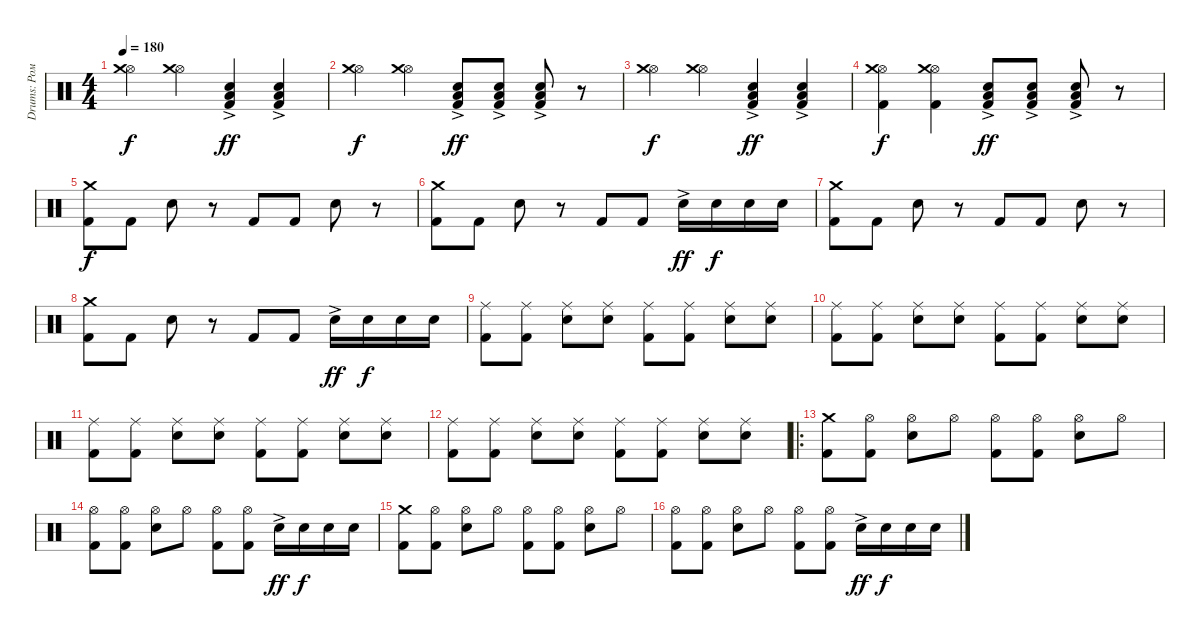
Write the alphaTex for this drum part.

\track ("Drums: Рома" "Drums: Ром") {instrument percussion}
\staff {score}
\articulation defaults
\ts (4 4)
\tempo 180
\clef neutral
\ks c
("Hi-Hat (open)" "Crash medium (hit)").4{dy f} ("Hi-Hat (open)" "Crash medium (hit)").4 ("Snare (hit) 2"{ac} "Low Tom (hit)" "Kick (hit) 2").4{dy ff} ("Snare (hit) 2"{ac} "Low Tom (hit)" "Kick (hit) 2").4 |
("Hi-Hat (open)" "Crash medium (hit)").4{dy f} ("Hi-Hat (open)" "Crash medium (hit)").4 ("Snare (hit) 2"{ac} "Low Tom (hit)" "Kick (hit) 2").8{dy ff} ("Snare (hit) 2"{ac} "Low Tom (hit)" "Kick (hit) 2").8 ("Snare (hit) 2"{ac} "Low Tom (hit)" "Kick (hit) 2").8 r.8 |
("Hi-Hat (open)" "Crash medium (hit)").4{dy f} ("Hi-Hat (open)" "Crash medium (hit)").4 ("Snare (hit) 2"{ac} "Low Tom (hit)" "Kick (hit) 2").4{dy ff} ("Snare (hit) 2"{ac} "Low Tom (hit)" "Kick (hit) 2").4 |
("Hi-Hat (open)" "Crash medium (hit)" "Kick (hit) 2").4{dy f} ("Hi-Hat (open)" "Crash medium (hit)" "Kick (hit) 2").4 ("Snare (hit) 2"{ac} "Low Tom (hit)" "Kick (hit) 2").8{dy ff} ("Snare (hit) 2"{ac} "Low Tom (hit)" "Kick (hit) 2").8 ("Snare (hit) 2"{ac} "Low Tom (hit)" "Kick (hit) 2").8 r.8 |
("Crash medium (hit)" "Kick (hit) 2").8{dy f} "Kick (hit) 2".8 "Snare (hit) 2".8 r.8 "Kick (hit) 2".8 "Kick (hit) 2".8 "Snare (hit) 2".8 r.8 |
("Crash medium (hit)" "Kick (hit) 2").8 "Kick (hit) 2".8 "Snare (hit) 2".8 r.8 "Kick (hit) 2".8 "Kick (hit) 2".8 "Snare (hit) 2"{ac}.16{dy ff} "Snare (hit) 2".16{dy f} "Snare (hit) 2".16 "Snare (hit) 2".16 |
("Crash medium (hit)" "Kick (hit) 2").8 "Kick (hit) 2".8 "Snare (hit) 2".8 r.8 "Kick (hit) 2".8 "Kick (hit) 2".8 "Snare (hit) 2".8 r.8 |
("Crash medium (hit)" "Kick (hit) 2").8 "Kick (hit) 2".8 "Snare (hit) 2".8 r.8 "Kick (hit) 2".8 "Kick (hit) 2".8 "Snare (hit) 2"{ac}.16{dy ff} "Snare (hit) 2".16{dy f} "Snare (hit) 2".16 "Snare (hit) 2".16 |
("Ride (middle)" "Kick (hit) 2").8 ("Ride (middle)" "Kick (hit) 2").8 ("Ride (middle)" "Snare (hit) 2").8 ("Ride (middle)" "Snare (hit) 2").8 ("Ride (middle)" "Kick (hit) 2").8 ("Ride (middle)" "Kick (hit) 2").8 ("Ride (middle)" "Snare (hit) 2").8 ("Ride (middle)" "Snare (hit) 2").8 |
("Ride (middle)" "Kick (hit) 2").8 ("Ride (middle)" "Kick (hit) 2").8 ("Ride (middle)" "Snare (hit) 2").8 ("Ride (middle)" "Snare (hit) 2").8 ("Ride (middle)" "Kick (hit) 2").8 ("Ride (middle)" "Kick (hit) 2").8 ("Ride (middle)" "Snare (hit) 2").8 ("Ride (middle)" "Snare (hit) 2").8 |
("Ride (middle)" "Kick (hit) 2").8 ("Ride (middle)" "Kick (hit) 2").8 ("Ride (middle)" "Snare (hit) 2").8 ("Ride (middle)" "Snare (hit) 2").8 ("Ride (middle)" "Kick (hit) 2").8 ("Ride (middle)" "Kick (hit) 2").8 ("Ride (middle)" "Snare (hit) 2").8 ("Ride (middle)" "Snare (hit) 2").8 |
("Ride (middle)" "Kick (hit) 2").8 ("Ride (middle)" "Kick (hit) 2").8 ("Ride (middle)" "Snare (hit) 2").8 ("Ride (middle)" "Snare (hit) 2").8 ("Ride (middle)" "Kick (hit) 2").8 ("Ride (middle)" "Kick (hit) 2").8 ("Ride (middle)" "Snare (hit) 2").8 ("Ride (middle)" "Snare (hit) 2").8 |
\ro
("Crash medium (hit)" "Kick (hit) 2").8 ("Hi-Hat (open)" "Kick (hit) 2").8 ("Hi-Hat (open)" "Snare (hit) 2").8 "Hi-Hat (open)".8 ("Hi-Hat (open)" "Kick (hit) 2").8 ("Hi-Hat (open)" "Kick (hit) 2").8 ("Hi-Hat (open)" "Snare (hit) 2").8 "Hi-Hat (open)".8 |
("Hi-Hat (open)" "Kick (hit) 2").8 ("Hi-Hat (open)" "Kick (hit) 2").8 ("Hi-Hat (open)" "Snare (hit) 2").8 "Hi-Hat (open)".8 ("Hi-Hat (open)" "Kick (hit) 2").8 ("Hi-Hat (open)" "Kick (hit) 2").8 "Snare (hit) 2"{ac}.16{dy ff} "Snare (hit) 2".16{dy f} "Snare (hit) 2".16 "Snare (hit) 2".16 |
("Crash medium (hit)" "Kick (hit) 2").8 ("Hi-Hat (open)" "Kick (hit) 2").8 ("Hi-Hat (open)" "Snare (hit) 2").8 "Hi-Hat (open)".8 ("Hi-Hat (open)" "Kick (hit) 2").8 ("Hi-Hat (open)" "Kick (hit) 2").8 ("Hi-Hat (open)" "Snare (hit) 2").8 "Hi-Hat (open)".8 |
("Hi-Hat (open)" "Kick (hit) 2").8 ("Hi-Hat (open)" "Kick (hit) 2").8 ("Hi-Hat (open)" "Snare (hit) 2").8 "Hi-Hat (open)".8 ("Hi-Hat (open)" "Kick (hit) 2").8 ("Hi-Hat (open)" "Kick (hit) 2").8 "Snare (hit) 2"{ac}.16{dy ff} "Snare (hit) 2".16{dy f} "Snare (hit) 2".16 "Snare (hit) 2".16
